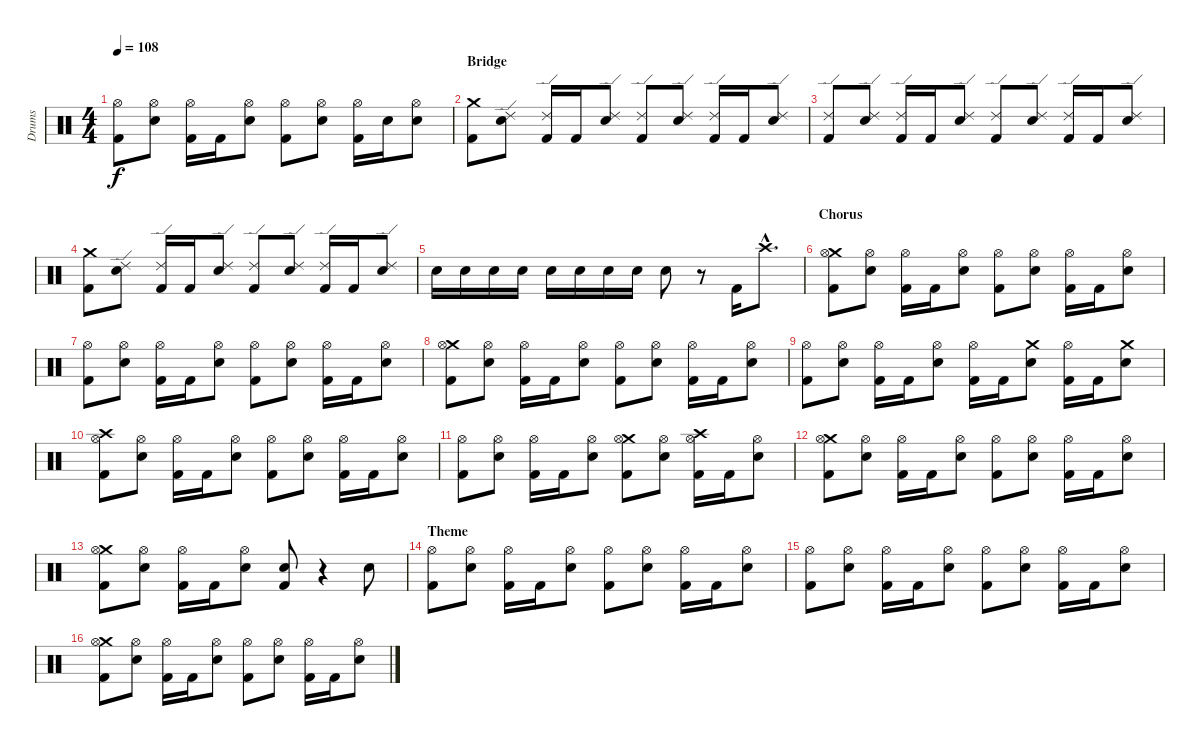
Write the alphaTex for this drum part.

\track ("Drums" "Drums") {instrument percussion}
\staff {score}
\articulation defaults
\ts (4 4)
\tempo 108
\clef neutral
\ks c
("Hi-Hat (open)" "Kick (hit) 2").8{dy f} ("Hi-Hat (open)" "Electric Snare (hit)").8 ("Hi-Hat (open)" "Kick (hit) 2").16 "Kick (hit) 2".16 ("Hi-Hat (open)" "Electric Snare (hit)").8 ("Hi-Hat (open)" "Kick (hit) 2").8 ("Hi-Hat (open)" "Electric Snare (hit)").8 ("Hi-Hat (open)" "Kick (hit) 2").16 "Electric Snare (hit)".16 ("Hi-Hat (open)" "Electric Snare (hit)").8 |
\section ("" "Bridge")
("Crash medium (hit)" "Kick (hit) 2").8 ("Ride (edge) 2" "Electric Snare (hit)").8 ("Ride (edge) 2" "Kick (hit) 2").16 "Kick (hit) 2".16 ("Ride (edge) 2" "Electric Snare (hit)").8 ("Ride (edge) 2" "Kick (hit) 2").8 ("Ride (edge) 2" "Electric Snare (hit)").8 ("Ride (edge) 2" "Kick (hit) 2").16 "Kick (hit) 2".16 ("Ride (edge) 2" "Electric Snare (hit)").8 |
("Ride (edge) 2" "Kick (hit) 2").8 ("Ride (edge) 2" "Electric Snare (hit)").8 ("Ride (edge) 2" "Kick (hit) 2").16 "Kick (hit) 2".16 ("Ride (edge) 2" "Electric Snare (hit)").8 ("Ride (edge) 2" "Kick (hit) 2").8 ("Ride (edge) 2" "Electric Snare (hit)").8 ("Ride (edge) 2" "Kick (hit) 2").16 "Kick (hit) 2".16 ("Ride (edge) 2" "Electric Snare (hit)").8 |
("Crash medium (hit)" "Kick (hit) 2").8 ("Ride (edge) 2" "Electric Snare (hit)").8 ("Ride (edge) 2" "Kick (hit) 2").16 "Kick (hit) 2".16 ("Ride (edge) 2" "Electric Snare (hit)").8 ("Ride (edge) 2" "Kick (hit) 2").8 ("Ride (edge) 2" "Electric Snare (hit)").8 ("Ride (edge) 2" "Kick (hit) 2").16 "Kick (hit) 2".16 ("Ride (edge) 2" "Electric Snare (hit)").8 |
"Electric Snare (hit)".16 "Electric Snare (hit)".16 "Electric Snare (hit)".16 "Electric Snare (hit)".16 "Electric Snare (hit)".16 "Electric Snare (hit)".16 "Electric Snare (hit)".16 "Electric Snare (hit)".16 "Electric Snare (hit)".8 r.8 "Kick (hit) 2".16 "Crash high (hit)"{hac}.8{d} |
\section ("" "Chorus")
("Crash medium (hit)" "Hi-Hat (open)" "Kick (hit) 2").8 ("Hi-Hat (open)" "Electric Snare (hit)").8 ("Hi-Hat (open)" "Kick (hit) 2").16 "Kick (hit) 2".16 ("Hi-Hat (open)" "Electric Snare (hit)").8 ("Hi-Hat (open)" "Kick (hit) 2").8 ("Hi-Hat (open)" "Electric Snare (hit)").8 ("Hi-Hat (open)" "Kick (hit) 2").16 "Kick (hit) 2".16 ("Hi-Hat (open)" "Electric Snare (hit)").8 |
("Hi-Hat (open)" "Kick (hit) 2").8 ("Hi-Hat (open)" "Electric Snare (hit)").8 ("Hi-Hat (open)" "Kick (hit) 2").16 "Kick (hit) 2".16 ("Hi-Hat (open)" "Electric Snare (hit)").8 ("Hi-Hat (open)" "Kick (hit) 2").8 ("Hi-Hat (open)" "Electric Snare (hit)").8 ("Hi-Hat (open)" "Kick (hit) 2").16 "Kick (hit) 2".16 ("Hi-Hat (open)" "Electric Snare (hit)").8 |
("Crash medium (hit)" "Hi-Hat (open)" "Kick (hit) 2").8 ("Hi-Hat (open)" "Electric Snare (hit)").8 ("Hi-Hat (open)" "Kick (hit) 2").16 "Kick (hit) 2".16 ("Hi-Hat (open)" "Electric Snare (hit)").8 ("Hi-Hat (open)" "Kick (hit) 2").8 ("Hi-Hat (open)" "Electric Snare (hit)").8 ("Hi-Hat (open)" "Kick (hit) 2").16 "Kick (hit) 2".16 ("Hi-Hat (open)" "Electric Snare (hit)").8 |
("Hi-Hat (open)" "Kick (hit) 2").8 ("Hi-Hat (open)" "Electric Snare (hit)").8 ("Hi-Hat (open)" "Kick (hit) 2").16 "Kick (hit) 2".16 ("Hi-Hat (open)" "Electric Snare (hit)").8 ("Hi-Hat (open)" "Kick (hit) 2").16 "Kick (hit) 2".16 ("Crash medium (hit)" "Electric Snare (hit)").8 ("Hi-Hat (open)" "Kick (hit) 2").16 "Kick (hit) 2".16 ("Crash medium (hit)" "Electric Snare (hit)").8 |
("Crash high (hit)" "Hi-Hat (open)" "Kick (hit) 2").8 ("Hi-Hat (open)" "Electric Snare (hit)").8 ("Hi-Hat (open)" "Kick (hit) 2").16 "Kick (hit) 2".16 ("Hi-Hat (open)" "Electric Snare (hit)").8 ("Hi-Hat (open)" "Kick (hit) 2").8 ("Hi-Hat (open)" "Electric Snare (hit)").8 ("Hi-Hat (open)" "Kick (hit) 2").16 "Kick (hit) 2".16 ("Hi-Hat (open)" "Electric Snare (hit)").8 |
("Hi-Hat (open)" "Kick (hit) 2").8 ("Hi-Hat (open)" "Electric Snare (hit)").8 ("Hi-Hat (open)" "Kick (hit) 2").16 "Kick (hit) 2".16 ("Hi-Hat (open)" "Electric Snare (hit)").8 ("Crash medium (hit)" "Hi-Hat (open)" "Kick (hit) 2").8 ("Hi-Hat (open)" "Electric Snare (hit)").8 ("Crash high (hit)" "Hi-Hat (open)" "Kick (hit) 2").16 "Kick (hit) 2".16 ("Hi-Hat (open)" "Electric Snare (hit)").8 |
("Crash medium (hit)" "Hi-Hat (open)" "Kick (hit) 2").8 ("Hi-Hat (open)" "Electric Snare (hit)").8 ("Hi-Hat (open)" "Kick (hit) 2").16 "Kick (hit) 2".16 ("Hi-Hat (open)" "Electric Snare (hit)").8 ("Hi-Hat (open)" "Kick (hit) 2").8 ("Hi-Hat (open)" "Electric Snare (hit)").8 ("Hi-Hat (open)" "Kick (hit) 2").16 "Kick (hit) 2".16 ("Hi-Hat (open)" "Electric Snare (hit)").8 |
("Crash medium (hit)" "Hi-Hat (open)" "Kick (hit) 2").8 ("Hi-Hat (open)" "Electric Snare (hit)").8 ("Hi-Hat (open)" "Kick (hit) 2").16 "Kick (hit) 2".16 ("Hi-Hat (open)" "Electric Snare (hit)").8 ("Electric Snare (hit)" "Kick (hit) 2").8 r.4 "Electric Snare (hit)".8 |
\section ("" "Theme")
("Hi-Hat (open)" "Kick (hit) 2").8 ("Hi-Hat (open)" "Electric Snare (hit)").8 ("Hi-Hat (open)" "Kick (hit) 2").16 "Kick (hit) 2".16 ("Hi-Hat (open)" "Electric Snare (hit)").8 ("Hi-Hat (open)" "Kick (hit) 2").8 ("Hi-Hat (open)" "Electric Snare (hit)").8 ("Hi-Hat (open)" "Kick (hit) 2").16 "Kick (hit) 2".16 ("Hi-Hat (open)" "Electric Snare (hit)").8 |
("Hi-Hat (open)" "Kick (hit) 2").8 ("Hi-Hat (open)" "Electric Snare (hit)").8 ("Hi-Hat (open)" "Kick (hit) 2").16 "Kick (hit) 2".16 ("Hi-Hat (open)" "Electric Snare (hit)").8 ("Hi-Hat (open)" "Kick (hit) 2").8 ("Hi-Hat (open)" "Electric Snare (hit)").8 ("Hi-Hat (open)" "Kick (hit) 2").16 "Kick (hit) 2".16 ("Hi-Hat (open)" "Electric Snare (hit)").8 |
("Crash medium (hit)" "Hi-Hat (open)" "Kick (hit) 2").8 ("Hi-Hat (open)" "Electric Snare (hit)").8 ("Hi-Hat (open)" "Kick (hit) 2").16 "Kick (hit) 2".16 ("Hi-Hat (open)" "Electric Snare (hit)").8 ("Hi-Hat (open)" "Kick (hit) 2").8 ("Hi-Hat (open)" "Electric Snare (hit)").8 ("Hi-Hat (open)" "Kick (hit) 2").16 "Kick (hit) 2".16 ("Hi-Hat (open)" "Electric Snare (hit)").8
